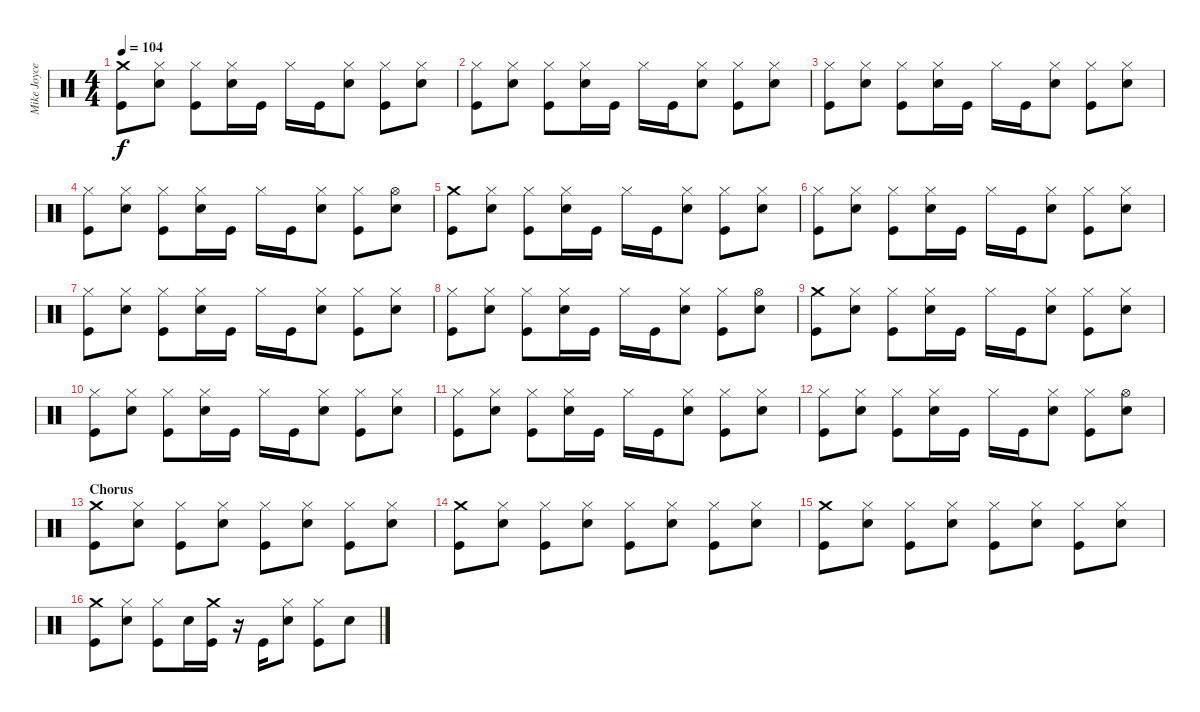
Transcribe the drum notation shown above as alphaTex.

\track ("Mike Joyce|Drums" "Mike Joyce") {instrument percussion}
\staff {score}
\articulation defaults
\ts (4 4)
\tempo 104
\clef neutral
\ks c
("Crash medium (hit)" "Kick (hit)").8{dy f} ("Hi-Hat (closed)" "Snare (hit) 2").8 ("Hi-Hat (closed)" "Kick (hit)").8 ("Hi-Hat (closed)" "Snare (hit) 2").16 "Kick (hit)".16 "Hi-Hat (closed)".16 "Kick (hit)".16 ("Hi-Hat (closed)" "Snare (hit) 2").8 ("Hi-Hat (closed)" "Kick (hit)").8 ("Hi-Hat (closed)" "Snare (hit) 2").8 |
("Hi-Hat (closed)" "Kick (hit)").8 ("Hi-Hat (closed)" "Snare (hit) 2").8 ("Hi-Hat (closed)" "Kick (hit)").8 ("Hi-Hat (closed)" "Snare (hit) 2").16 "Kick (hit)".16 "Hi-Hat (closed)".16 "Kick (hit)".16 ("Hi-Hat (closed)" "Snare (hit) 2").8 ("Hi-Hat (closed)" "Kick (hit)").8 ("Hi-Hat (closed)" "Snare (hit) 2").8 |
("Hi-Hat (closed)" "Kick (hit)").8 ("Hi-Hat (closed)" "Snare (hit) 2").8 ("Hi-Hat (closed)" "Kick (hit)").8 ("Hi-Hat (closed)" "Snare (hit) 2").16 "Kick (hit)".16 "Hi-Hat (closed)".16 "Kick (hit)".16 ("Hi-Hat (closed)" "Snare (hit) 2").8 ("Hi-Hat (closed)" "Kick (hit)").8 ("Hi-Hat (closed)" "Snare (hit) 2").8 |
("Hi-Hat (closed)" "Kick (hit)").8 ("Hi-Hat (closed)" "Snare (hit) 2").8 ("Hi-Hat (closed)" "Kick (hit)").8 ("Hi-Hat (closed)" "Snare (hit) 2").16 "Kick (hit)".16 "Hi-Hat (closed)".16 "Kick (hit)".16 ("Hi-Hat (closed)" "Snare (hit) 2").8 ("Hi-Hat (closed)" "Kick (hit)").8 ("Hi-Hat (open)" "Snare (hit) 2").8 |
("Crash medium (hit)" "Kick (hit)").8 ("Hi-Hat (closed)" "Snare (hit) 2").8 ("Hi-Hat (closed)" "Kick (hit)").8 ("Hi-Hat (closed)" "Snare (hit) 2").16 "Kick (hit)".16 "Hi-Hat (closed)".16 "Kick (hit)".16 ("Hi-Hat (closed)" "Snare (hit) 2").8 ("Hi-Hat (closed)" "Kick (hit)").8 ("Hi-Hat (closed)" "Snare (hit) 2").8 |
("Hi-Hat (closed)" "Kick (hit)").8 ("Hi-Hat (closed)" "Snare (hit) 2").8 ("Hi-Hat (closed)" "Kick (hit)").8 ("Hi-Hat (closed)" "Snare (hit) 2").16 "Kick (hit)".16 "Hi-Hat (closed)".16 "Kick (hit)".16 ("Hi-Hat (closed)" "Snare (hit) 2").8 ("Hi-Hat (closed)" "Kick (hit)").8 ("Hi-Hat (closed)" "Snare (hit) 2").8 |
("Hi-Hat (closed)" "Kick (hit)").8 ("Hi-Hat (closed)" "Snare (hit) 2").8 ("Hi-Hat (closed)" "Kick (hit)").8 ("Hi-Hat (closed)" "Snare (hit) 2").16 "Kick (hit)".16 "Hi-Hat (closed)".16 "Kick (hit)".16 ("Hi-Hat (closed)" "Snare (hit) 2").8 ("Hi-Hat (closed)" "Kick (hit)").8 ("Hi-Hat (closed)" "Snare (hit) 2").8 |
("Hi-Hat (closed)" "Kick (hit)").8 ("Hi-Hat (closed)" "Snare (hit) 2").8 ("Hi-Hat (closed)" "Kick (hit)").8 ("Hi-Hat (closed)" "Snare (hit) 2").16 "Kick (hit)".16 "Hi-Hat (closed)".16 "Kick (hit)".16 ("Hi-Hat (closed)" "Snare (hit) 2").8 ("Hi-Hat (closed)" "Kick (hit)").8 ("Hi-Hat (open)" "Snare (hit) 2").8 |
("Crash medium (hit)" "Kick (hit)").8 ("Hi-Hat (closed)" "Snare (hit) 2").8 ("Hi-Hat (closed)" "Kick (hit)").8 ("Hi-Hat (closed)" "Snare (hit) 2").16 "Kick (hit)".16 "Hi-Hat (closed)".16 "Kick (hit)".16 ("Hi-Hat (closed)" "Snare (hit) 2").8 ("Hi-Hat (closed)" "Kick (hit)").8 ("Hi-Hat (closed)" "Snare (hit) 2").8 |
("Hi-Hat (closed)" "Kick (hit)").8 ("Hi-Hat (closed)" "Snare (hit) 2").8 ("Hi-Hat (closed)" "Kick (hit)").8 ("Hi-Hat (closed)" "Snare (hit) 2").16 "Kick (hit)".16 "Hi-Hat (closed)".16 "Kick (hit)".16 ("Hi-Hat (closed)" "Snare (hit) 2").8 ("Hi-Hat (closed)" "Kick (hit)").8 ("Hi-Hat (closed)" "Snare (hit) 2").8 |
("Hi-Hat (closed)" "Kick (hit)").8 ("Hi-Hat (closed)" "Snare (hit) 2").8 ("Hi-Hat (closed)" "Kick (hit)").8 ("Hi-Hat (closed)" "Snare (hit) 2").16 "Kick (hit)".16 "Hi-Hat (closed)".16 "Kick (hit)".16 ("Hi-Hat (closed)" "Snare (hit) 2").8 ("Hi-Hat (closed)" "Kick (hit)").8 ("Hi-Hat (closed)" "Snare (hit) 2").8 |
("Hi-Hat (closed)" "Kick (hit)").8 ("Hi-Hat (closed)" "Snare (hit) 2").8 ("Hi-Hat (closed)" "Kick (hit)").8 ("Hi-Hat (closed)" "Snare (hit) 2").16 "Kick (hit)".16 "Hi-Hat (closed)".16 "Kick (hit)".16 ("Hi-Hat (closed)" "Snare (hit) 2").8 ("Hi-Hat (closed)" "Kick (hit)").8 ("Hi-Hat (open)" "Snare (hit) 2").8 |
\section ("" "Chorus")
("Crash medium (hit)" "Kick (hit)").8 ("Hi-Hat (closed)" "Snare (hit) 2").8 ("Hi-Hat (closed)" "Kick (hit)").8 ("Hi-Hat (closed)" "Snare (hit) 2").8 ("Hi-Hat (closed)" "Kick (hit)").8 ("Hi-Hat (closed)" "Snare (hit) 2").8 ("Hi-Hat (closed)" "Kick (hit)").8 ("Hi-Hat (closed)" "Snare (hit) 2").8 |
("Crash medium (hit)" "Kick (hit)").8 ("Hi-Hat (closed)" "Snare (hit) 2").8 ("Hi-Hat (closed)" "Kick (hit)").8 ("Hi-Hat (closed)" "Snare (hit) 2").8 ("Hi-Hat (closed)" "Kick (hit)").8 ("Hi-Hat (closed)" "Snare (hit) 2").8 ("Hi-Hat (closed)" "Kick (hit)").8 ("Hi-Hat (closed)" "Snare (hit) 2").8 |
("Crash medium (hit)" "Kick (hit)").8 ("Hi-Hat (closed)" "Snare (hit) 2").8 ("Hi-Hat (closed)" "Kick (hit)").8 ("Hi-Hat (closed)" "Snare (hit) 2").8 ("Hi-Hat (closed)" "Kick (hit)").8 ("Hi-Hat (closed)" "Snare (hit) 2").8 ("Hi-Hat (closed)" "Kick (hit)").8 ("Hi-Hat (closed)" "Snare (hit) 2").8 |
("Crash medium (hit)" "Kick (hit)").8 ("Hi-Hat (closed)" "Snare (hit) 2").8 ("Hi-Hat (closed)" "Kick (hit)").8 "Snare (hit) 2".16 ("Crash medium (hit)" "Kick (hit)").16 r.16 "Kick (hit)".16 ("Hi-Hat (closed)" "Snare (hit) 2").8 ("Hi-Hat (closed)" "Kick (hit)").8 "Snare (hit) 2".8
